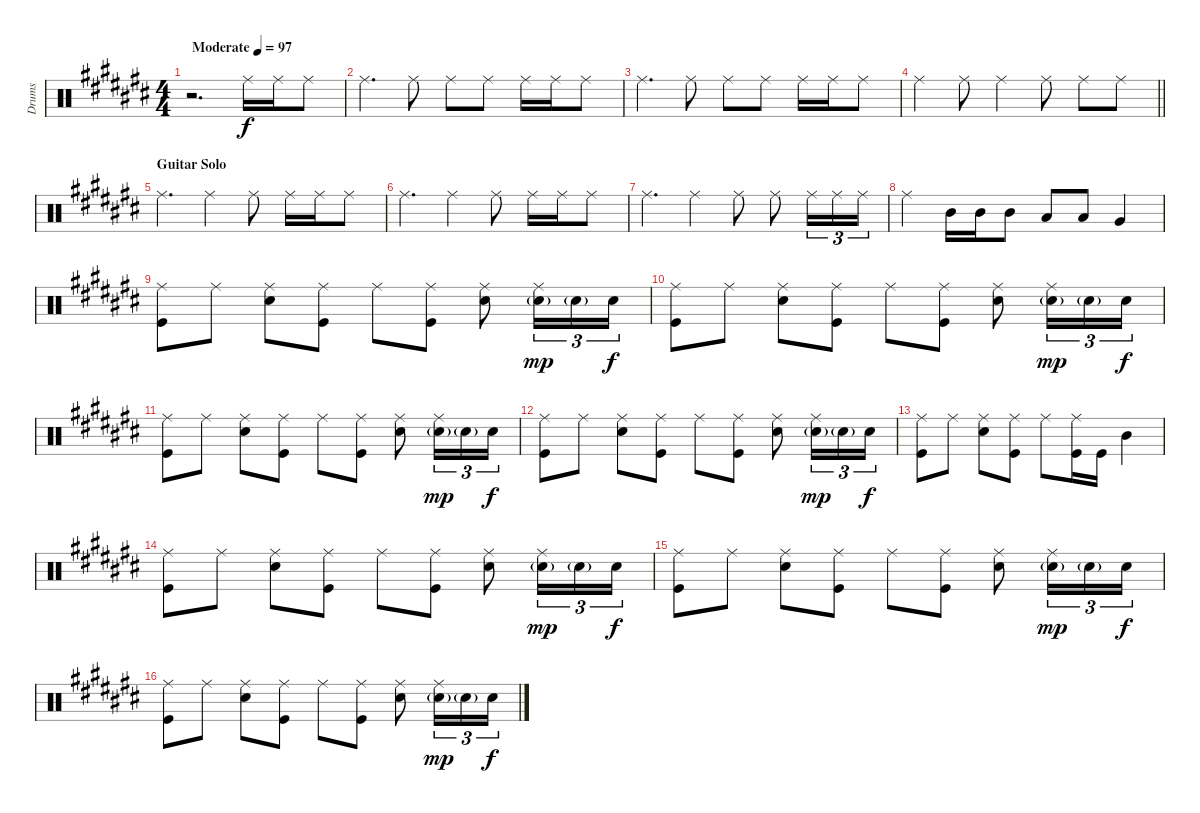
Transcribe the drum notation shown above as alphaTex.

\track ("Drums" "Drums") {instrument percussion}
\staff {score}
\articulation defaults
\ts (4 4)
\tempo (97 "Moderate")
\clef neutral
\ks c#
r.2{d dy f} "Ride (middle)".16 "Ride (middle)".16 "Ride (middle)".8 |
"Ride (middle)".4{d} "Ride (middle)".8 "Ride (middle)".8 "Ride (middle)".8 "Ride (middle)".16 "Ride (middle)".16 "Ride (middle)".8 |
"Ride (middle)".4{d} "Ride (middle)".8 "Ride (middle)".8 "Ride (middle)".8 "Ride (middle)".16 "Ride (middle)".16 "Ride (middle)".8 |
\barLineRight lightlight "Ride (middle)".4 "Ride (middle)".8 "Ride (middle)".4 "Ride (middle)".8 "Ride (middle)".8 "Ride (middle)".8
|
\section ("" "Guitar Solo")
"Ride (middle)".4{d} "Ride (middle)".4 "Ride (middle)".8 "Ride (middle)".16 "Ride (middle)".16 "Ride (middle)".8 |
"Ride (middle)".4{d} "Ride (middle)".4 "Ride (middle)".8 "Ride (middle)".16 "Ride (middle)".16 "Ride (middle)".8 |
"Ride (middle)".4{d} "Ride (middle)".4 "Ride (middle)".8 "Ride (middle)".8 "Ride (middle)".16{tu (3 2)} "Ride (middle)".16{tu (3 2)} "Ride (middle)".16{tu (3 2)} |
"Ride (middle)".4 "Mid Tom (hit)".16 "Mid Tom (hit)".16 "Mid Tom (hit)".8 "Low Tom (hit)".8 "Low Tom (hit)".8 "Very Low Tom (hit)".4 |
("Ride (middle)" "Kick (hit)").8 "Ride (middle)".8 ("Ride (middle)" "Snare (hit) 2").8 ("Ride (middle)" "Kick (hit)").8 "Ride (middle)".8 ("Ride (middle)" "Kick (hit)").8 ("Ride (middle)" "Snare (hit) 2").8 ("Ride (middle)" "Snare (hit) 2"{g}).16{tu (3 2) dy mp} "Snare (hit) 2"{g}.16{tu (3 2)} "Snare (hit) 2".16{tu (3 2) dy f} |
("Ride (middle)" "Kick (hit)").8 "Ride (middle)".8 ("Ride (middle)" "Snare (hit) 2").8 ("Ride (middle)" "Kick (hit)").8 "Ride (middle)".8 ("Ride (middle)" "Kick (hit)").8 ("Ride (middle)" "Snare (hit) 2").8 ("Ride (middle)" "Snare (hit) 2"{g}).16{tu (3 2) dy mp} "Snare (hit) 2"{g}.16{tu (3 2)} "Snare (hit) 2".16{tu (3 2) dy f} |
("Ride (middle)" "Kick (hit)").8 "Ride (middle)".8 ("Ride (middle)" "Snare (hit) 2").8 ("Ride (middle)" "Kick (hit)").8 "Ride (middle)".8 ("Ride (middle)" "Kick (hit)").8 ("Ride (middle)" "Snare (hit) 2").8 ("Ride (middle)" "Snare (hit) 2"{g}).16{tu (3 2) dy mp} "Snare (hit) 2"{g}.16{tu (3 2)} "Snare (hit) 2".16{tu (3 2) dy f} |
("Ride (middle)" "Kick (hit)").8 "Ride (middle)".8 ("Ride (middle)" "Snare (hit) 2").8 ("Ride (middle)" "Kick (hit)").8 "Ride (middle)".8 ("Ride (middle)" "Kick (hit)").8 ("Ride (middle)" "Snare (hit) 2").8 ("Ride (middle)" "Snare (hit) 2"{g}).16{tu (3 2) dy mp} "Snare (hit) 2"{g}.16{tu (3 2)} "Snare (hit) 2".16{tu (3 2) dy f} |
("Ride (middle)" "Kick (hit)").8 "Ride (middle)".8 ("Ride (middle)" "Snare (hit) 2").8 ("Ride (middle)" "Kick (hit)").8 "Ride (middle)".8 ("Ride (middle)" "Kick (hit)").16 "Kick (hit)".16 "Mid Tom (hit)".4 |
("Ride (middle)" "Kick (hit)").8 "Ride (middle)".8 ("Ride (middle)" "Snare (hit) 2").8 ("Ride (middle)" "Kick (hit)").8 "Ride (middle)".8 ("Ride (middle)" "Kick (hit)").8 ("Ride (middle)" "Snare (hit) 2").8 ("Ride (middle)" "Snare (hit) 2"{g}).16{tu (3 2) dy mp} "Snare (hit) 2"{g}.16{tu (3 2)} "Snare (hit) 2".16{tu (3 2) dy f} |
("Ride (middle)" "Kick (hit)").8 "Ride (middle)".8 ("Ride (middle)" "Snare (hit) 2").8 ("Ride (middle)" "Kick (hit)").8 "Ride (middle)".8 ("Ride (middle)" "Kick (hit)").8 ("Ride (middle)" "Snare (hit) 2").8 ("Ride (middle)" "Snare (hit) 2"{g}).16{tu (3 2) dy mp} "Snare (hit) 2"{g}.16{tu (3 2)} "Snare (hit) 2".16{tu (3 2) dy f} |
("Ride (middle)" "Kick (hit)").8 "Ride (middle)".8 ("Ride (middle)" "Snare (hit) 2").8 ("Ride (middle)" "Kick (hit)").8 "Ride (middle)".8 ("Ride (middle)" "Kick (hit)").8 ("Ride (middle)" "Snare (hit) 2").8 ("Ride (middle)" "Snare (hit) 2"{g}).16{tu (3 2) dy mp} "Snare (hit) 2"{g}.16{tu (3 2)} "Snare (hit) 2".16{tu (3 2) dy f}
